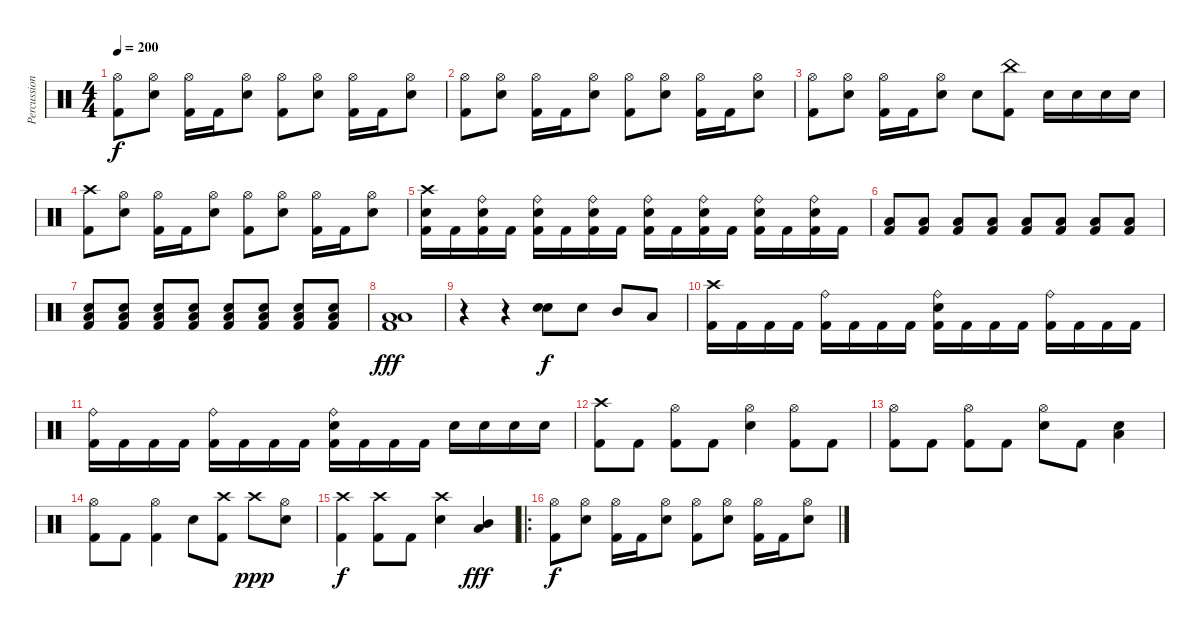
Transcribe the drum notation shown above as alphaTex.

\track ("Percussions" "Percussion") {instrument percussion}
\staff {score}
\articulation defaults
\ts (4 4)
\tempo 200
\clef neutral
\ks c
("Hi-Hat (open)" "Kick (hit) 2").8{dy f} ("Hi-Hat (open)" "Snare (hit) 2").8 ("Hi-Hat (open)" "Kick (hit) 2").16 "Kick (hit) 2".16 ("Hi-Hat (open)" "Snare (hit) 2").8 ("Hi-Hat (open)" "Kick (hit) 2").8 ("Hi-Hat (open)" "Snare (hit) 2").8 ("Hi-Hat (open)" "Kick (hit) 2").16 "Kick (hit) 2".16 ("Hi-Hat (open)" "Snare (hit) 2").8 |
("Hi-Hat (open)" "Kick (hit) 2").8 ("Hi-Hat (open)" "Snare (hit) 2").8 ("Hi-Hat (open)" "Kick (hit) 2").16 "Kick (hit) 2".16 ("Hi-Hat (open)" "Snare (hit) 2").8 ("Hi-Hat (open)" "Kick (hit) 2").8 ("Hi-Hat (open)" "Snare (hit) 2").8 ("Hi-Hat (open)" "Kick (hit) 2").16 "Kick (hit) 2".16 ("Hi-Hat (open)" "Snare (hit) 2").8 |
("Hi-Hat (open)" "Kick (hit) 2").8 ("Hi-Hat (open)" "Snare (hit) 2").8 ("Hi-Hat (open)" "Kick (hit) 2").16 "Kick (hit) 2".16 ("Hi-Hat (open)" "Snare (hit) 2").8 "Snare (hit) 2".8 ("China (hit)" "Kick (hit) 2").8 "Snare (hit) 2".16 "Snare (hit) 2".16 "Snare (hit) 2".16 "Snare (hit) 2".16 |
("Crash high (hit)" "Kick (hit) 2").8 ("Hi-Hat (open)" "Snare (hit) 2").8 ("Hi-Hat (open)" "Kick (hit) 2").16 "Kick (hit) 2".16 ("Hi-Hat (open)" "Snare (hit) 2").8 ("Hi-Hat (open)" "Kick (hit) 2").8 ("Hi-Hat (open)" "Snare (hit) 2").8 ("Hi-Hat (open)" "Kick (hit) 2").16 "Kick (hit) 2".16 ("Hi-Hat (open)" "Snare (hit) 2").8 |
("Crash high (hit)" "Snare (hit) 2" "Kick (hit) 2").16 "Kick (hit) 2".16 ("Ride (bell)" "Snare (hit) 2" "Kick (hit) 2").16 "Kick (hit) 2".16 ("Ride (bell)" "Snare (hit) 2" "Kick (hit) 2").16 "Kick (hit) 2".16 ("Ride (bell)" "Snare (hit) 2" "Kick (hit) 2").16 "Kick (hit) 2".16 ("Ride (bell)" "Snare (hit) 2" "Kick (hit) 2").16 "Kick (hit) 2".16 ("Ride (bell)" "Snare (hit) 2" "Kick (hit) 2").16 "Kick (hit) 2".16 ("Ride (bell)" "Snare (hit) 2" "Kick (hit) 2").16 "Kick (hit) 2".16 ("Ride (bell)" "Snare (hit) 2" "Kick (hit) 2").16 "Kick (hit) 2".16 |
("Low Floor Tom (hit)" "Kick (hit) 2").8 ("Low Floor Tom (hit)" "Kick (hit) 2").8 ("Low Floor Tom (hit)" "Kick (hit) 2").8 ("Low Floor Tom (hit)" "Kick (hit) 2").8 ("Low Floor Tom (hit)" "Kick (hit) 2").8 ("Low Floor Tom (hit)" "Kick (hit) 2").8 ("Low Floor Tom (hit)" "Kick (hit) 2").8 ("Low Floor Tom (hit)" "Kick (hit) 2").8 |
("Snare (hit) 2" "Low Floor Tom (hit)" "Kick (hit) 2").8 ("Snare (hit) 2" "Low Floor Tom (hit)" "Kick (hit) 2").8 ("Snare (hit) 2" "Low Floor Tom (hit)" "Kick (hit) 2").8 ("Snare (hit) 2" "Low Floor Tom (hit)" "Kick (hit) 2").8 ("Snare (hit) 2" "Low Floor Tom (hit)" "Kick (hit) 2").8 ("Snare (hit) 2" "Low Floor Tom (hit)" "Kick (hit) 2").8 ("Snare (hit) 2" "Low Floor Tom (hit)" "Kick (hit) 2").8 ("Snare (hit) 2" "Low Floor Tom (hit)" "Kick (hit) 2").8 |
("Low Floor Tom (hit)" "Low Floor Tom (hit)" "Kick (hit) 2").1{dy fff} |
r.4 r.4 ("Snare (hit) 2" "Snare (hit) 2").8{bd 120 dy f} "Snare (hit) 2".8 "Mid Tom (hit)".8 "Low Tom (hit)".8 |
("Crash high (hit)" "Kick (hit) 2").16 "Kick (hit) 2".16 "Kick (hit) 2".16 "Kick (hit) 2".16 ("Ride (bell)" "Kick (hit) 2").16 "Kick (hit) 2".16 "Kick (hit) 2".16 "Kick (hit) 2".16 ("Ride (bell)" "Snare (hit) 2" "Kick (hit) 2").16 "Kick (hit) 2".16 "Kick (hit) 2".16 "Kick (hit) 2".16 ("Ride (bell)" "Kick (hit) 2").16 "Kick (hit) 2".16 "Kick (hit) 2".16 "Kick (hit) 2".16 |
("Ride (bell)" "Kick (hit) 2").16 "Kick (hit) 2".16 "Kick (hit) 2".16 "Kick (hit) 2".16 ("Ride (bell)" "Kick (hit) 2").16 "Kick (hit) 2".16 "Kick (hit) 2".16 "Kick (hit) 2".16 ("Ride (bell)" "Snare (hit) 2" "Kick (hit) 2").16 "Kick (hit) 2".16 "Kick (hit) 2".16 "Kick (hit) 2".16 "Snare (hit) 2".16 "Snare (hit) 2".16 "Snare (hit) 2".16 "Snare (hit) 2".16 |
("Crash high (hit)" "Kick (hit) 2").8 "Kick (hit) 2".8 ("Hi-Hat (open)" "Kick (hit) 2").8 "Kick (hit) 2".8 ("Hi-Hat (open)" "Snare (hit) 2").4 ("Hi-Hat (open)" "Kick (hit) 2").8 "Kick (hit) 2".8 |
("Hi-Hat (open)" "Kick (hit) 2").8 "Kick (hit) 2".8 ("Hi-Hat (open)" "Kick (hit) 2").8 "Kick (hit) 2".8 ("Hi-Hat (open)" "Snare (hit) 2").8 "Kick (hit) 2".8 ("Low Floor Tom (hit)" "Snare (hit) 2").4 |
("Hi-Hat (open)" "Kick (hit) 2").8 "Kick (hit) 2".8 ("Hi-Hat (open)" "Kick (hit) 2").4 "Snare (hit) 2".8 ("Crash high (hit)" "Kick (hit) 2").8 "Crash high (hit)".8{dy ppp} ("Hi-Hat (open)" "Snare (hit) 2").8 |
("Crash high (hit)" "Kick (hit) 2").4{dy f} ("Crash high (hit)" "Kick (hit) 2").8 "Kick (hit) 2".8 ("Crash high (hit)" "Snare (hit) 2").4 ("Mid Tom (hit)" "Low Tom (hit)").4{dy fff} |
\ro
("Hi-Hat (open)" "Kick (hit) 2").8{dy f} ("Hi-Hat (open)" "Snare (hit) 2").8 ("Hi-Hat (open)" "Kick (hit) 2").16 "Kick (hit) 2".16 ("Hi-Hat (open)" "Snare (hit) 2").8 ("Hi-Hat (open)" "Kick (hit) 2").8 ("Hi-Hat (open)" "Snare (hit) 2").8 ("Hi-Hat (open)" "Kick (hit) 2").16 "Kick (hit) 2".16 ("Hi-Hat (open)" "Snare (hit) 2").8
